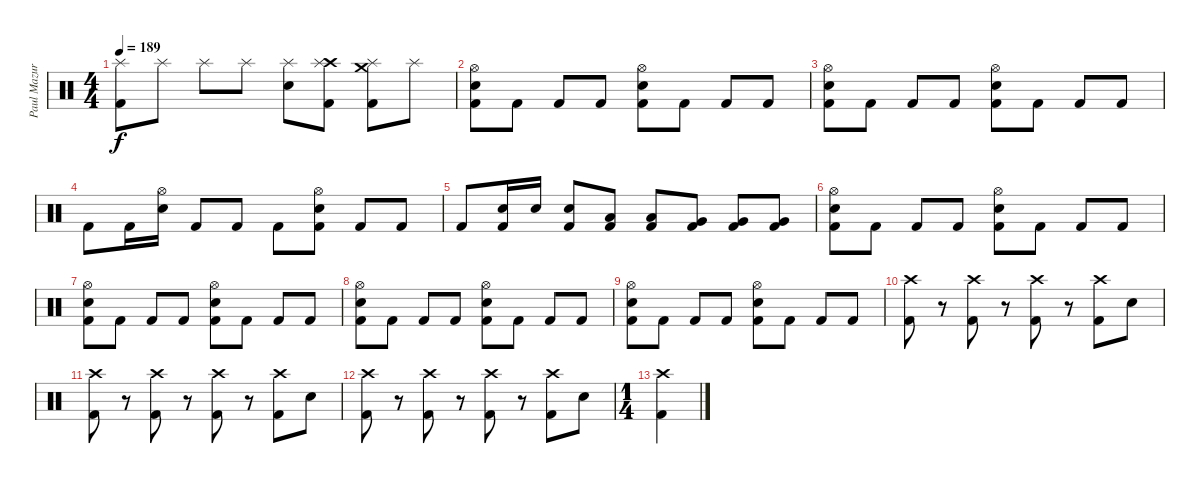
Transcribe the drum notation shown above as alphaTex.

\track ("Paul Mazurkevitch" "Paul Mazur") {instrument percussion}
\staff {score}
\articulation defaults
\ts (4 4)
\tempo 189
\clef neutral
\ks c
("Splash (hit)" "Kick (hit) 2").8{dy f} "Splash (hit)".8 "Splash (hit)".8 "Splash (hit)".8 ("Splash (hit)" "Electric Snare (hit)").8 ("Crash high (hit)" "Splash (hit)" "Kick (hit) 2").8 ("Crash medium (hit)" "Splash (hit)" "Kick (hit) 2").8 "Splash (hit)".8 |
("Hi-Hat (open)" "Electric Snare (hit)" "Kick (hit) 2").8 "Kick (hit) 2".8 "Kick (hit) 2".8 "Kick (hit) 2".8 ("Hi-Hat (open)" "Electric Snare (hit)" "Kick (hit) 2").8 "Kick (hit) 2".8 "Kick (hit) 2".8 "Kick (hit) 2".8 |
("Hi-Hat (open)" "Electric Snare (hit)" "Kick (hit) 2").8 "Kick (hit) 2".8 "Kick (hit) 2".8 "Kick (hit) 2".8 ("Hi-Hat (open)" "Electric Snare (hit)" "Kick (hit) 2").8 "Kick (hit) 2".8 "Kick (hit) 2".8 "Kick (hit) 2".8 |
"Kick (hit) 2".8 "Kick (hit) 2".16 ("Hi-Hat (open)" "Electric Snare (hit)").16 "Kick (hit) 2".8 "Kick (hit) 2".8 "Kick (hit) 2".8 ("Hi-Hat (open)" "Electric Snare (hit)" "Kick (hit) 2").8 "Kick (hit) 2".8 "Kick (hit) 2".8 |
"Kick (hit) 2".8 ("Electric Snare (hit)" "Kick (hit) 2").16 "Electric Snare (hit)".16 ("Electric Snare (hit)" "Kick (hit) 2").8 ("Low Tom (hit)" "Kick (hit) 2").8 ("Low Tom (hit)" "Kick (hit) 2").8 ("Very Low Tom (hit)" "Kick (hit) 2").8 ("Very Low Tom (hit)" "Kick (hit) 2").8 ("Very Low Tom (hit)" "Kick (hit) 2").8 |
("Hi-Hat (open)" "Electric Snare (hit)" "Kick (hit) 2").8 "Kick (hit) 2".8 "Kick (hit) 2".8 "Kick (hit) 2".8 ("Hi-Hat (open)" "Electric Snare (hit)" "Kick (hit) 2").8 "Kick (hit) 2".8 "Kick (hit) 2".8 "Kick (hit) 2".8 |
("Hi-Hat (open)" "Electric Snare (hit)" "Kick (hit) 2").8 "Kick (hit) 2".8 "Kick (hit) 2".8 "Kick (hit) 2".8 ("Hi-Hat (open)" "Electric Snare (hit)" "Kick (hit) 2").8 "Kick (hit) 2".8 "Kick (hit) 2".8 "Kick (hit) 2".8 |
("Hi-Hat (open)" "Electric Snare (hit)" "Kick (hit) 2").8 "Kick (hit) 2".8 "Kick (hit) 2".8 "Kick (hit) 2".8 ("Hi-Hat (open)" "Electric Snare (hit)" "Kick (hit) 2").8 "Kick (hit) 2".8 "Kick (hit) 2".8 "Kick (hit) 2".8 |
("Hi-Hat (open)" "Electric Snare (hit)" "Kick (hit) 2").8 "Kick (hit) 2".8 "Kick (hit) 2".8 "Kick (hit) 2".8 ("Hi-Hat (open)" "Electric Snare (hit)" "Kick (hit) 2").8 "Kick (hit) 2".8 "Kick (hit) 2".8 "Kick (hit) 2".8 |
("Crash high (hit)" "Kick (hit) 2").8 r.8{volume 0} ("Crash high (hit)" "Kick (hit) 2").8{volume 16} r.8{volume 0} ("Crash high (hit)" "Kick (hit) 2").8{volume 16} r.8{volume 0} ("Crash high (hit)" "Kick (hit) 2").8{volume 16} "Electric Snare (hit)".8 |
("Crash high (hit)" "Kick (hit) 2").8 r.8{volume 0} ("Crash high (hit)" "Kick (hit) 2").8{volume 16} r.8{volume 0} ("Crash high (hit)" "Kick (hit) 2").8{volume 16} r.8{volume 0} ("Crash high (hit)" "Kick (hit) 2").8{volume 16} "Electric Snare (hit)".8 |
("Crash high (hit)" "Kick (hit) 2").8 r.8{volume 0} ("Crash high (hit)" "Kick (hit) 2").8{volume 16} r.8{volume 0} ("Crash high (hit)" "Kick (hit) 2").8{volume 16} r.8{volume 0} ("Crash high (hit)" "Kick (hit) 2").8{volume 16} "Electric Snare (hit)".8 |
\ts (1 4)
("Crash high (hit)" "Kick (hit) 2").4
